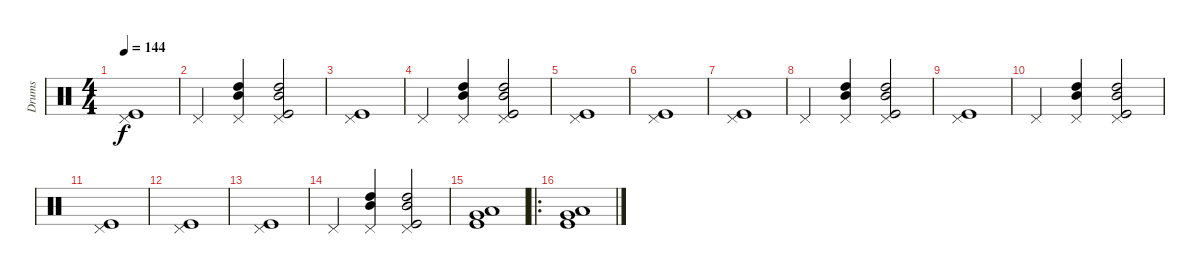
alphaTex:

\track ("Drums" "Drums") {instrument percussion}
\staff {score}
\articulation defaults
\ts (4 4)
\tempo 144
\clef neutral
\ks c
("Pedal Hi-Hat (hit)" "Kick (hit)").1{dy f} |
"Pedal Hi-Hat (hit)".4 ("Pedal Hi-Hat (hit)" "High Tom (hit)" "Mid Tom (hit)").4 ("Pedal Hi-Hat (hit)" "High Tom (hit)" "Mid Tom (hit)" "Kick (hit)").2 |
("Pedal Hi-Hat (hit)" "Kick (hit)").1 |
"Pedal Hi-Hat (hit)".4 ("Pedal Hi-Hat (hit)" "High Tom (hit)" "Mid Tom (hit)").4 ("Pedal Hi-Hat (hit)" "High Tom (hit)" "Mid Tom (hit)" "Kick (hit)").2 |
("Pedal Hi-Hat (hit)" "Kick (hit)").1 |
("Pedal Hi-Hat (hit)" "Kick (hit)").1 |
("Pedal Hi-Hat (hit)" "Kick (hit)").1 |
"Pedal Hi-Hat (hit)".4 ("Pedal Hi-Hat (hit)" "High Tom (hit)" "Mid Tom (hit)").4 ("Pedal Hi-Hat (hit)" "High Tom (hit)" "Mid Tom (hit)" "Kick (hit)").2 |
("Pedal Hi-Hat (hit)" "Kick (hit)").1 |
"Pedal Hi-Hat (hit)".4 ("Pedal Hi-Hat (hit)" "High Tom (hit)" "Mid Tom (hit)").4 ("Pedal Hi-Hat (hit)" "High Tom (hit)" "Mid Tom (hit)" "Kick (hit)").2 |
("Pedal Hi-Hat (hit)" "Kick (hit)").1 |
("Pedal Hi-Hat (hit)" "Kick (hit)").1 |
("Pedal Hi-Hat (hit)" "Kick (hit)").1 |
"Pedal Hi-Hat (hit)".4 ("Pedal Hi-Hat (hit)" "High Tom (hit)" "Mid Tom (hit)").4 ("Pedal Hi-Hat (hit)" "High Tom (hit)" "Mid Tom (hit)" "Kick (hit)").2 |
("Low Tom (hit)" "Very Low Tom (hit)" "Kick (hit)").1 |
\ro
("Low Tom (hit)" "Very Low Tom (hit)" "Kick (hit)").1
